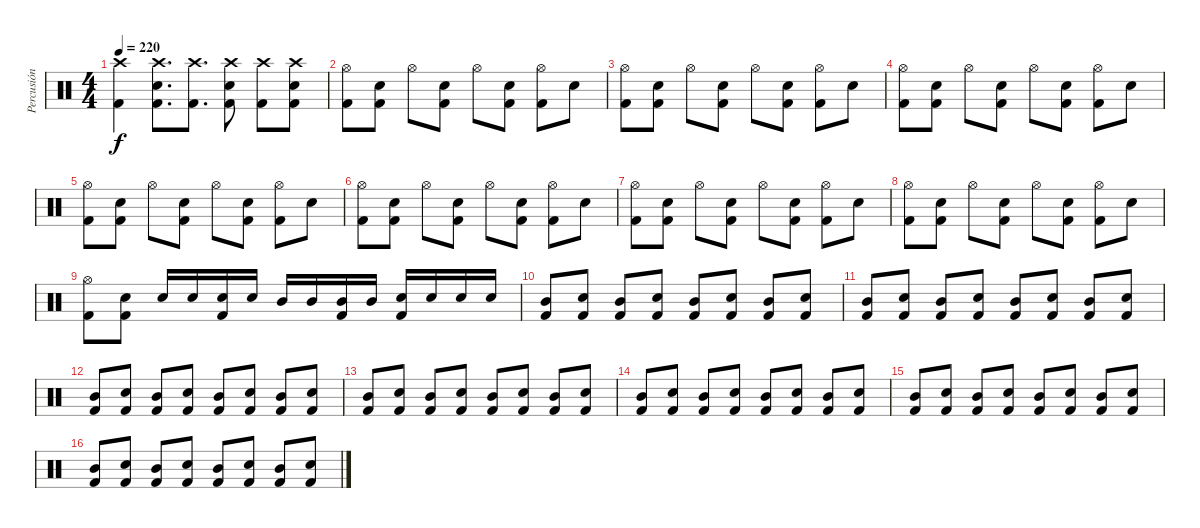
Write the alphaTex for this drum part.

\track ("Percusión" "Percusión") {instrument percussion}
\staff {score}
\articulation defaults
\ts (4 4)
\tempo 220
\clef neutral
\ks c
("Crash high (hit)" "Kick (hit) 2").4{dy f} ("Crash high (hit)" "Electric Snare (hit)" "Kick (hit) 2").8{d} ("Crash high (hit)" "Kick (hit) 2").8{d} ("Crash high (hit)" "Electric Snare (hit)" "Kick (hit) 2").8 ("Crash high (hit)" "Kick (hit) 2").8 ("Crash high (hit)" "Electric Snare (hit)" "Kick (hit) 2").8 |
("Hi-Hat (open)" "Kick (hit) 2").8 ("Electric Snare (hit)" "Kick (hit) 2").8 "Hi-Hat (open)".8 ("Electric Snare (hit)" "Kick (hit) 2").8 "Hi-Hat (open)".8 ("Electric Snare (hit)" "Kick (hit) 2").8 ("Hi-Hat (open)" "Kick (hit) 2").8 "Electric Snare (hit)".8 |
("Hi-Hat (open)" "Kick (hit) 2").8 ("Electric Snare (hit)" "Kick (hit) 2").8 "Hi-Hat (open)".8 ("Electric Snare (hit)" "Kick (hit) 2").8 "Hi-Hat (open)".8 ("Electric Snare (hit)" "Kick (hit) 2").8 ("Hi-Hat (open)" "Kick (hit) 2").8 "Electric Snare (hit)".8 |
("Hi-Hat (open)" "Kick (hit) 2").8 ("Electric Snare (hit)" "Kick (hit) 2").8 "Hi-Hat (open)".8 ("Electric Snare (hit)" "Kick (hit) 2").8 "Hi-Hat (open)".8 ("Electric Snare (hit)" "Kick (hit) 2").8 ("Hi-Hat (open)" "Kick (hit) 2").8 "Electric Snare (hit)".8 |
("Hi-Hat (open)" "Kick (hit) 2").8 ("Electric Snare (hit)" "Kick (hit) 2").8 "Hi-Hat (open)".8 ("Electric Snare (hit)" "Kick (hit) 2").8 "Hi-Hat (open)".8 ("Electric Snare (hit)" "Kick (hit) 2").8 ("Hi-Hat (open)" "Kick (hit) 2").8 "Electric Snare (hit)".8 |
("Hi-Hat (open)" "Kick (hit) 2").8 ("Electric Snare (hit)" "Kick (hit) 2").8 "Hi-Hat (open)".8 ("Electric Snare (hit)" "Kick (hit) 2").8 "Hi-Hat (open)".8 ("Electric Snare (hit)" "Kick (hit) 2").8 ("Hi-Hat (open)" "Kick (hit) 2").8 "Electric Snare (hit)".8 |
("Hi-Hat (open)" "Kick (hit) 2").8 ("Electric Snare (hit)" "Kick (hit) 2").8 "Hi-Hat (open)".8 ("Electric Snare (hit)" "Kick (hit) 2").8 "Hi-Hat (open)".8 ("Electric Snare (hit)" "Kick (hit) 2").8 ("Hi-Hat (open)" "Kick (hit) 2").8 "Electric Snare (hit)".8 |
("Hi-Hat (open)" "Kick (hit) 2").8 ("Electric Snare (hit)" "Kick (hit) 2").8 "Hi-Hat (open)".8 ("Electric Snare (hit)" "Kick (hit) 2").8 "Hi-Hat (open)".8 ("Electric Snare (hit)" "Kick (hit) 2").8 ("Hi-Hat (open)" "Kick (hit) 2").8 "Electric Snare (hit)".8 |
("Hi-Hat (open)" "Kick (hit) 2").8 ("Electric Snare (hit)" "Kick (hit) 2").8 "Electric Snare (hit)".16 "Electric Snare (hit)".16 ("Electric Snare (hit)" "Kick (hit) 2").16 "Electric Snare (hit)".16 "Mid Tom (hit)".16 "Mid Tom (hit)".16 ("Mid Tom (hit)" "Kick (hit) 2").16 "Mid Tom (hit)".16 ("Electric Snare (hit)" "Kick (hit) 2").16 "Electric Snare (hit)".16 "Electric Snare (hit)".16 "Electric Snare (hit)".16 |
("Mid Tom (hit)" "Kick (hit) 2").8 ("Electric Snare (hit)" "Kick (hit) 2").8 ("Mid Tom (hit)" "Kick (hit) 2").8 ("Electric Snare (hit)" "Kick (hit) 2").8 ("Mid Tom (hit)" "Kick (hit) 2").8 ("Electric Snare (hit)" "Kick (hit) 2").8 ("Mid Tom (hit)" "Kick (hit) 2").8 ("Electric Snare (hit)" "Kick (hit) 2").8 |
("Mid Tom (hit)" "Kick (hit) 2").8 ("Electric Snare (hit)" "Kick (hit) 2").8 ("Mid Tom (hit)" "Kick (hit) 2").8 ("Electric Snare (hit)" "Kick (hit) 2").8 ("Mid Tom (hit)" "Kick (hit) 2").8 ("Electric Snare (hit)" "Kick (hit) 2").8 ("Mid Tom (hit)" "Kick (hit) 2").8 ("Electric Snare (hit)" "Kick (hit) 2").8 |
("Mid Tom (hit)" "Kick (hit) 2").8 ("Electric Snare (hit)" "Kick (hit) 2").8 ("Mid Tom (hit)" "Kick (hit) 2").8 ("Electric Snare (hit)" "Kick (hit) 2").8 ("Mid Tom (hit)" "Kick (hit) 2").8 ("Electric Snare (hit)" "Kick (hit) 2").8 ("Mid Tom (hit)" "Kick (hit) 2").8 ("Electric Snare (hit)" "Kick (hit) 2").8 |
("Mid Tom (hit)" "Kick (hit) 2").8 ("Electric Snare (hit)" "Kick (hit) 2").8 ("Mid Tom (hit)" "Kick (hit) 2").8 ("Electric Snare (hit)" "Kick (hit) 2").8 ("Mid Tom (hit)" "Kick (hit) 2").8 ("Electric Snare (hit)" "Kick (hit) 2").8 ("Mid Tom (hit)" "Kick (hit) 2").8 ("Electric Snare (hit)" "Kick (hit) 2").8 |
("Mid Tom (hit)" "Kick (hit) 2").8 ("Electric Snare (hit)" "Kick (hit) 2").8 ("Mid Tom (hit)" "Kick (hit) 2").8 ("Electric Snare (hit)" "Kick (hit) 2").8 ("Mid Tom (hit)" "Kick (hit) 2").8 ("Electric Snare (hit)" "Kick (hit) 2").8 ("Mid Tom (hit)" "Kick (hit) 2").8 ("Electric Snare (hit)" "Kick (hit) 2").8 |
("Mid Tom (hit)" "Kick (hit) 2").8 ("Electric Snare (hit)" "Kick (hit) 2").8 ("Mid Tom (hit)" "Kick (hit) 2").8 ("Electric Snare (hit)" "Kick (hit) 2").8 ("Mid Tom (hit)" "Kick (hit) 2").8 ("Electric Snare (hit)" "Kick (hit) 2").8 ("Mid Tom (hit)" "Kick (hit) 2").8 ("Electric Snare (hit)" "Kick (hit) 2").8 |
("Mid Tom (hit)" "Kick (hit) 2").8 ("Electric Snare (hit)" "Kick (hit) 2").8 ("Mid Tom (hit)" "Kick (hit) 2").8 ("Electric Snare (hit)" "Kick (hit) 2").8 ("Mid Tom (hit)" "Kick (hit) 2").8 ("Electric Snare (hit)" "Kick (hit) 2").8 ("Mid Tom (hit)" "Kick (hit) 2").8 ("Electric Snare (hit)" "Kick (hit) 2").8
